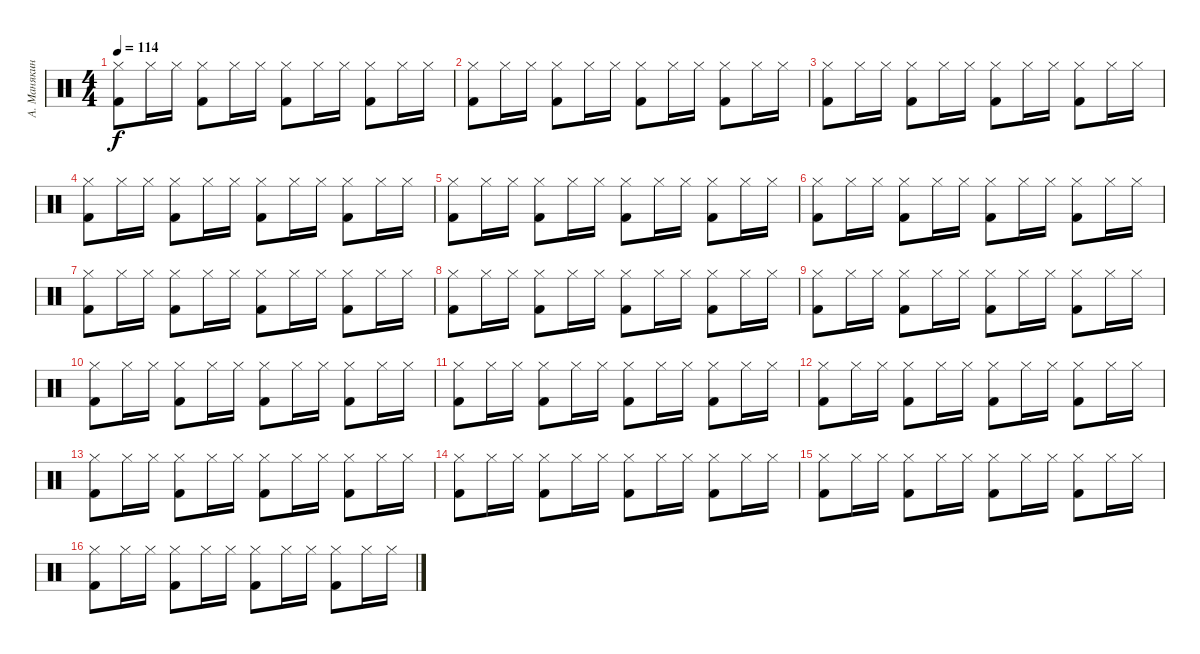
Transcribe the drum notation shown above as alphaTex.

\track ("А. Манякин" "А. Манякин") {instrument percussion}
\staff {score}
\articulation defaults
\ts (4 4)
\tempo 114
\clef neutral
\ks c
("Kick (hit) 2" "Hi-Hat (closed)").8{dy f} "Hi-Hat (closed)".16 "Hi-Hat (closed)".16 ("Kick (hit) 2" "Hi-Hat (closed)").8 "Hi-Hat (closed)".16 "Hi-Hat (closed)".16 ("Kick (hit) 2" "Hi-Hat (closed)").8 "Hi-Hat (closed)".16 "Hi-Hat (closed)".16 ("Kick (hit) 2" "Hi-Hat (closed)").8 "Hi-Hat (closed)".16 "Hi-Hat (closed)".16 |
("Kick (hit) 2" "Hi-Hat (closed)").8 "Hi-Hat (closed)".16 "Hi-Hat (closed)".16 ("Kick (hit) 2" "Hi-Hat (closed)").8 "Hi-Hat (closed)".16 "Hi-Hat (closed)".16 ("Kick (hit) 2" "Hi-Hat (closed)").8 "Hi-Hat (closed)".16 "Hi-Hat (closed)".16 ("Kick (hit) 2" "Hi-Hat (closed)").8 "Hi-Hat (closed)".16 "Hi-Hat (closed)".16 |
("Kick (hit) 2" "Hi-Hat (closed)").8 "Hi-Hat (closed)".16 "Hi-Hat (closed)".16 ("Kick (hit) 2" "Hi-Hat (closed)").8 "Hi-Hat (closed)".16 "Hi-Hat (closed)".16 ("Kick (hit) 2" "Hi-Hat (closed)").8 "Hi-Hat (closed)".16 "Hi-Hat (closed)".16 ("Kick (hit) 2" "Hi-Hat (closed)").8 "Hi-Hat (closed)".16 "Hi-Hat (closed)".16 |
("Kick (hit) 2" "Hi-Hat (closed)").8 "Hi-Hat (closed)".16 "Hi-Hat (closed)".16 ("Kick (hit) 2" "Hi-Hat (closed)").8 "Hi-Hat (closed)".16 "Hi-Hat (closed)".16 ("Kick (hit) 2" "Hi-Hat (closed)").8 "Hi-Hat (closed)".16 "Hi-Hat (closed)".16 ("Kick (hit) 2" "Hi-Hat (closed)").8 "Hi-Hat (closed)".16 "Hi-Hat (closed)".16 |
("Kick (hit) 2" "Hi-Hat (closed)").8 "Hi-Hat (closed)".16 "Hi-Hat (closed)".16 ("Kick (hit) 2" "Hi-Hat (closed)").8 "Hi-Hat (closed)".16 "Hi-Hat (closed)".16 ("Kick (hit) 2" "Hi-Hat (closed)").8 "Hi-Hat (closed)".16 "Hi-Hat (closed)".16 ("Kick (hit) 2" "Hi-Hat (closed)").8 "Hi-Hat (closed)".16 "Hi-Hat (closed)".16 |
("Kick (hit) 2" "Hi-Hat (closed)").8 "Hi-Hat (closed)".16 "Hi-Hat (closed)".16 ("Kick (hit) 2" "Hi-Hat (closed)").8 "Hi-Hat (closed)".16 "Hi-Hat (closed)".16 ("Kick (hit) 2" "Hi-Hat (closed)").8 "Hi-Hat (closed)".16 "Hi-Hat (closed)".16 ("Kick (hit) 2" "Hi-Hat (closed)").8 "Hi-Hat (closed)".16 "Hi-Hat (closed)".16 |
("Kick (hit) 2" "Hi-Hat (closed)").8 "Hi-Hat (closed)".16 "Hi-Hat (closed)".16 ("Kick (hit) 2" "Hi-Hat (closed)").8 "Hi-Hat (closed)".16 "Hi-Hat (closed)".16 ("Kick (hit) 2" "Hi-Hat (closed)").8 "Hi-Hat (closed)".16 "Hi-Hat (closed)".16 ("Kick (hit) 2" "Hi-Hat (closed)").8 "Hi-Hat (closed)".16 "Hi-Hat (closed)".16 |
("Kick (hit) 2" "Hi-Hat (closed)").8 "Hi-Hat (closed)".16 "Hi-Hat (closed)".16 ("Kick (hit) 2" "Hi-Hat (closed)").8 "Hi-Hat (closed)".16 "Hi-Hat (closed)".16 ("Kick (hit) 2" "Hi-Hat (closed)").8 "Hi-Hat (closed)".16 "Hi-Hat (closed)".16 ("Kick (hit) 2" "Hi-Hat (closed)").8 "Hi-Hat (closed)".16 "Hi-Hat (closed)".16 |
("Kick (hit) 2" "Hi-Hat (closed)").8 "Hi-Hat (closed)".16 "Hi-Hat (closed)".16 ("Kick (hit) 2" "Hi-Hat (closed)").8 "Hi-Hat (closed)".16 "Hi-Hat (closed)".16 ("Kick (hit) 2" "Hi-Hat (closed)").8 "Hi-Hat (closed)".16 "Hi-Hat (closed)".16 ("Kick (hit) 2" "Hi-Hat (closed)").8 "Hi-Hat (closed)".16 "Hi-Hat (closed)".16 |
("Kick (hit) 2" "Hi-Hat (closed)").8 "Hi-Hat (closed)".16 "Hi-Hat (closed)".16 ("Kick (hit) 2" "Hi-Hat (closed)").8 "Hi-Hat (closed)".16 "Hi-Hat (closed)".16 ("Kick (hit) 2" "Hi-Hat (closed)").8 "Hi-Hat (closed)".16 "Hi-Hat (closed)".16 ("Kick (hit) 2" "Hi-Hat (closed)").8 "Hi-Hat (closed)".16 "Hi-Hat (closed)".16 |
("Kick (hit) 2" "Hi-Hat (closed)").8 "Hi-Hat (closed)".16 "Hi-Hat (closed)".16 ("Kick (hit) 2" "Hi-Hat (closed)").8 "Hi-Hat (closed)".16 "Hi-Hat (closed)".16 ("Kick (hit) 2" "Hi-Hat (closed)").8 "Hi-Hat (closed)".16 "Hi-Hat (closed)".16 ("Kick (hit) 2" "Hi-Hat (closed)").8 "Hi-Hat (closed)".16 "Hi-Hat (closed)".16 |
("Kick (hit) 2" "Hi-Hat (closed)").8 "Hi-Hat (closed)".16 "Hi-Hat (closed)".16 ("Kick (hit) 2" "Hi-Hat (closed)").8 "Hi-Hat (closed)".16 "Hi-Hat (closed)".16 ("Kick (hit) 2" "Hi-Hat (closed)").8 "Hi-Hat (closed)".16 "Hi-Hat (closed)".16 ("Kick (hit) 2" "Hi-Hat (closed)").8 "Hi-Hat (closed)".16 "Hi-Hat (closed)".16 |
("Kick (hit) 2" "Hi-Hat (closed)").8 "Hi-Hat (closed)".16 "Hi-Hat (closed)".16 ("Kick (hit) 2" "Hi-Hat (closed)").8 "Hi-Hat (closed)".16 "Hi-Hat (closed)".16 ("Kick (hit) 2" "Hi-Hat (closed)").8 "Hi-Hat (closed)".16 "Hi-Hat (closed)".16 ("Kick (hit) 2" "Hi-Hat (closed)").8 "Hi-Hat (closed)".16 "Hi-Hat (closed)".16 |
("Kick (hit) 2" "Hi-Hat (closed)").8 "Hi-Hat (closed)".16 "Hi-Hat (closed)".16 ("Kick (hit) 2" "Hi-Hat (closed)").8 "Hi-Hat (closed)".16 "Hi-Hat (closed)".16 ("Kick (hit) 2" "Hi-Hat (closed)").8 "Hi-Hat (closed)".16 "Hi-Hat (closed)".16 ("Kick (hit) 2" "Hi-Hat (closed)").8 "Hi-Hat (closed)".16 "Hi-Hat (closed)".16 |
("Kick (hit) 2" "Hi-Hat (closed)").8 "Hi-Hat (closed)".16 "Hi-Hat (closed)".16 ("Kick (hit) 2" "Hi-Hat (closed)").8 "Hi-Hat (closed)".16 "Hi-Hat (closed)".16 ("Kick (hit) 2" "Hi-Hat (closed)").8 "Hi-Hat (closed)".16 "Hi-Hat (closed)".16 ("Kick (hit) 2" "Hi-Hat (closed)").8 "Hi-Hat (closed)".16 "Hi-Hat (closed)".16 |
("Kick (hit) 2" "Hi-Hat (closed)").8 "Hi-Hat (closed)".16 "Hi-Hat (closed)".16 ("Kick (hit) 2" "Hi-Hat (closed)").8 "Hi-Hat (closed)".16 "Hi-Hat (closed)".16 ("Kick (hit) 2" "Hi-Hat (closed)").8 "Hi-Hat (closed)".16 "Hi-Hat (closed)".16 ("Kick (hit) 2" "Hi-Hat (closed)").8 "Hi-Hat (closed)".16 "Hi-Hat (closed)".16
